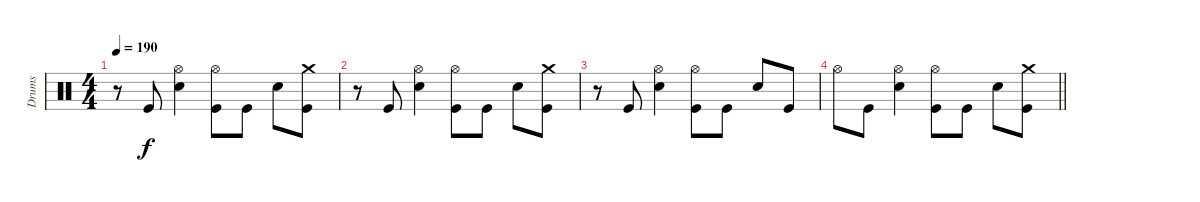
\track ("Drums" "Drums") {instrument percussion}
\staff {score}
\articulation defaults
\ts (4 4)
\tempo 190
\clef neutral
\ks c
r.8{dy f} "Kick (hit)".8 ("Hi-Hat (open)" "Snare (hit) 2").4 ("Hi-Hat (open)" "Kick (hit)").8 "Kick (hit)".8 "Snare (hit) 2".8 ("Crash medium (hit)" "Kick (hit)").8 |
r.8 "Kick (hit)".8 ("Hi-Hat (open)" "Snare (hit) 2").4 ("Hi-Hat (open)" "Kick (hit)").8 "Kick (hit)".8 "Snare (hit) 2".8 ("Crash medium (hit)" "Kick (hit)").8 |
r.8 "Kick (hit)".8 ("Hi-Hat (open)" "Snare (hit) 2").4 ("Hi-Hat (open)" "Kick (hit)").8 "Kick (hit)".8 "Snare (hit) 2".8 "Kick (hit)".8 |
\barLineRight lightlight "Hi-Hat (open)".8 "Kick (hit)".8
("Hi-Hat (open)" "Snare (hit) 2").4 ("Hi-Hat (open)" "Kick (hit)").8 "Kick (hit)".8 "Snare (hit) 2".8 ("Crash medium (hit)" "Kick (hit)").8
